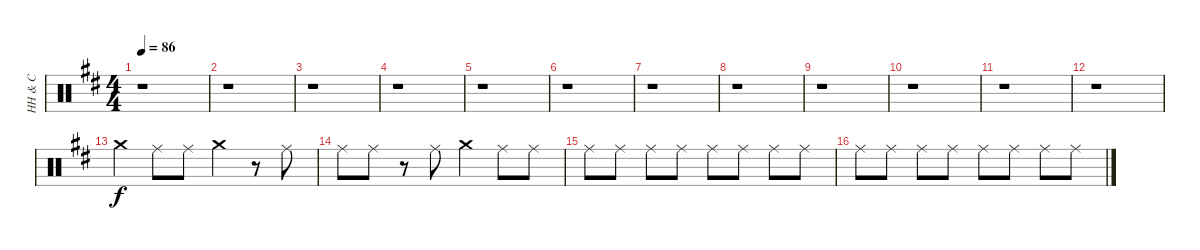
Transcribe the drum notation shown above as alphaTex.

\track ("HH & C" "HH & C") {instrument percussion}
\staff {score}
\articulation defaults
\ts (4 4)
\tempo 86
\clef neutral
\ks d
r.1{dy f} |
r.1 |
r.1 |
r.1 |
r.1 |
r.1 |
r.1 |
r.1 |
r.1 |
r.1 |
r.1 |
r.1 |
"Crash medium (hit)".4 "Ride (middle)".8 "Ride (middle)".8 "Crash medium (hit)".4 r.8 "Ride (middle)".8 |
"Ride (middle)".8 "Ride (middle)".8 r.8 "Ride (middle)".8 "Crash medium (hit)".4 "Ride (middle)".8 "Ride (middle)".8 |
"Ride (middle)".8 "Ride (middle)".8 "Ride (middle)".8 "Ride (middle)".8 "Ride (middle)".8 "Ride (middle)".8 "Ride (middle)".8 "Ride (middle)".8 |
"Ride (middle)".8 "Ride (middle)".8 "Ride (middle)".8 "Ride (middle)".8 "Ride (middle)".8 "Ride (middle)".8 "Ride (middle)".8 "Ride (middle)".8
